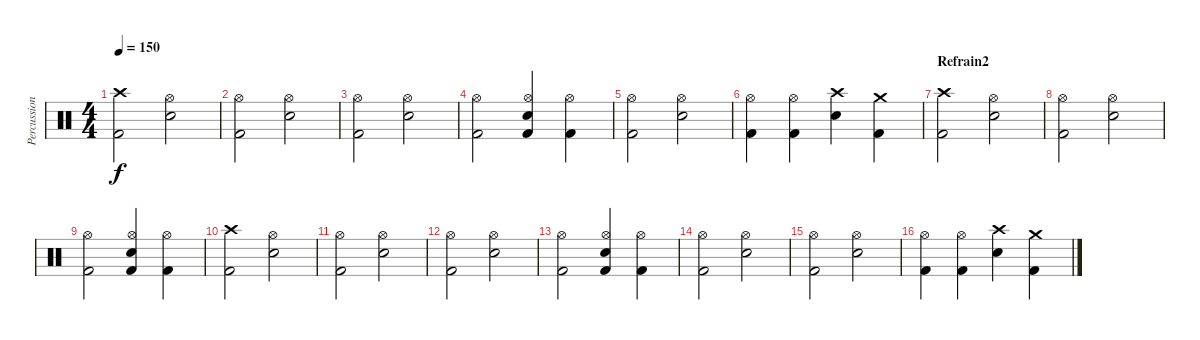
\track ("Percussions" "Percussion") {instrument percussion}
\staff {score}
\articulation defaults
\ts (4 4)
\tempo 150
\clef neutral
\ks c
("Crash high (hit)" "Kick (hit) 2").2{dy f} ("Hi-Hat (open)" "Snare (hit) 2").2 |
("Hi-Hat (open)" "Kick (hit) 2").2 ("Hi-Hat (open)" "Snare (hit) 2").2 |
("Hi-Hat (open)" "Kick (hit) 2").2 ("Hi-Hat (open)" "Snare (hit) 2").2 |
("Hi-Hat (open)" "Kick (hit) 2").2 ("Hi-Hat (open)" "Snare (hit) 2" "Kick (hit) 2").4 ("Hi-Hat (open)" "Kick (hit) 2").4 |
("Hi-Hat (open)" "Kick (hit) 2").2 ("Hi-Hat (open)" "Snare (hit) 2").2 |
("Hi-Hat (open)" "Kick (hit) 2").4 ("Hi-Hat (open)" "Kick (hit) 2").4 ("Crash high (hit)" "Snare (hit) 2").4 ("Crash medium (hit)" "Kick (hit) 2").4 |
\section ("" "Refrain2")
("Crash high (hit)" "Kick (hit) 2").2 ("Hi-Hat (open)" "Snare (hit) 2").2 |
("Hi-Hat (open)" "Kick (hit) 2").2 ("Hi-Hat (open)" "Snare (hit) 2").2 |
("Hi-Hat (open)" "Kick (hit) 2").2 ("Hi-Hat (open)" "Snare (hit) 2" "Kick (hit) 2").4 ("Hi-Hat (open)" "Kick (hit) 2").4 |
("Crash high (hit)" "Kick (hit) 2").2 ("Hi-Hat (open)" "Snare (hit) 2").2 |
("Hi-Hat (open)" "Kick (hit) 2").2 ("Hi-Hat (open)" "Snare (hit) 2").2 |
("Hi-Hat (open)" "Kick (hit) 2").2 ("Hi-Hat (open)" "Snare (hit) 2").2 |
("Hi-Hat (open)" "Kick (hit) 2").2 ("Hi-Hat (open)" "Snare (hit) 2" "Kick (hit) 2").4 ("Hi-Hat (open)" "Kick (hit) 2").4 |
("Hi-Hat (open)" "Kick (hit) 2").2 ("Hi-Hat (open)" "Snare (hit) 2").2 |
("Hi-Hat (open)" "Kick (hit) 2").2 ("Hi-Hat (open)" "Snare (hit) 2").2 |
("Hi-Hat (open)" "Kick (hit) 2").4 ("Hi-Hat (open)" "Kick (hit) 2").4 ("Crash high (hit)" "Snare (hit) 2").4 ("Crash medium (hit)" "Kick (hit) 2").4
